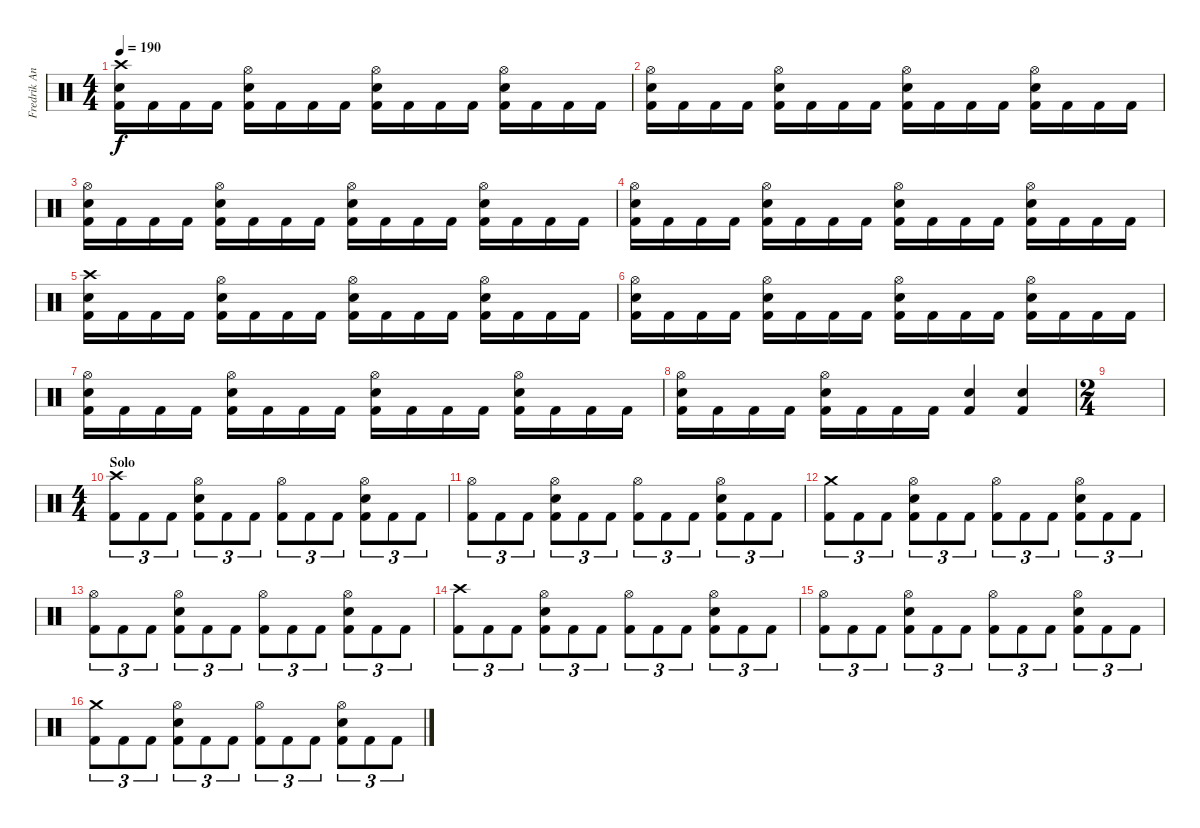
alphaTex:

\track ("Fredrik Andersson" "Fredrik An") {instrument percussion}
\staff {score}
\articulation defaults
\ts (4 4)
\section ("" "")
\tempo 190
\clef neutral
\ks c
("Crash high (hit)" "Electric Snare (hit)" "Kick (hit) 2").16{dy f} "Kick (hit) 2".16 "Kick (hit) 2".16 "Kick (hit) 2".16 ("Hi-Hat (open)" "Electric Snare (hit)" "Kick (hit) 2").16 "Kick (hit) 2".16 "Kick (hit) 2".16 "Kick (hit) 2".16 ("Hi-Hat (open)" "Electric Snare (hit)" "Kick (hit) 2").16 "Kick (hit) 2".16 "Kick (hit) 2".16 "Kick (hit) 2".16 ("Hi-Hat (open)" "Electric Snare (hit)" "Kick (hit) 2").16 "Kick (hit) 2".16 "Kick (hit) 2".16 "Kick (hit) 2".16 |
("Hi-Hat (open)" "Electric Snare (hit)" "Kick (hit) 2").16 "Kick (hit) 2".16 "Kick (hit) 2".16 "Kick (hit) 2".16 ("Hi-Hat (open)" "Electric Snare (hit)" "Kick (hit) 2").16 "Kick (hit) 2".16 "Kick (hit) 2".16 "Kick (hit) 2".16 ("Hi-Hat (open)" "Electric Snare (hit)" "Kick (hit) 2").16 "Kick (hit) 2".16 "Kick (hit) 2".16 "Kick (hit) 2".16 ("Hi-Hat (open)" "Electric Snare (hit)" "Kick (hit) 2").16 "Kick (hit) 2".16 "Kick (hit) 2".16 "Kick (hit) 2".16 |
("Hi-Hat (open)" "Electric Snare (hit)" "Kick (hit) 2").16 "Kick (hit) 2".16 "Kick (hit) 2".16 "Kick (hit) 2".16 ("Hi-Hat (open)" "Electric Snare (hit)" "Kick (hit) 2").16 "Kick (hit) 2".16 "Kick (hit) 2".16 "Kick (hit) 2".16 ("Hi-Hat (open)" "Electric Snare (hit)" "Kick (hit) 2").16 "Kick (hit) 2".16 "Kick (hit) 2".16 "Kick (hit) 2".16 ("Hi-Hat (open)" "Electric Snare (hit)" "Kick (hit) 2").16 "Kick (hit) 2".16 "Kick (hit) 2".16 "Kick (hit) 2".16 |
("Hi-Hat (open)" "Electric Snare (hit)" "Kick (hit) 2").16 "Kick (hit) 2".16 "Kick (hit) 2".16 "Kick (hit) 2".16 ("Hi-Hat (open)" "Electric Snare (hit)" "Kick (hit) 2").16 "Kick (hit) 2".16 "Kick (hit) 2".16 "Kick (hit) 2".16 ("Hi-Hat (open)" "Electric Snare (hit)" "Kick (hit) 2").16 "Kick (hit) 2".16 "Kick (hit) 2".16 "Kick (hit) 2".16 ("Hi-Hat (open)" "Electric Snare (hit)" "Kick (hit) 2").16 "Kick (hit) 2".16 "Kick (hit) 2".16 "Kick (hit) 2".16 |
("Crash high (hit)" "Electric Snare (hit)" "Kick (hit) 2").16 "Kick (hit) 2".16 "Kick (hit) 2".16 "Kick (hit) 2".16 ("Hi-Hat (open)" "Electric Snare (hit)" "Kick (hit) 2").16 "Kick (hit) 2".16 "Kick (hit) 2".16 "Kick (hit) 2".16 ("Hi-Hat (open)" "Electric Snare (hit)" "Kick (hit) 2").16 "Kick (hit) 2".16 "Kick (hit) 2".16 "Kick (hit) 2".16 ("Hi-Hat (open)" "Electric Snare (hit)" "Kick (hit) 2").16 "Kick (hit) 2".16 "Kick (hit) 2".16 "Kick (hit) 2".16 |
("Hi-Hat (open)" "Electric Snare (hit)" "Kick (hit) 2").16 "Kick (hit) 2".16 "Kick (hit) 2".16 "Kick (hit) 2".16 ("Hi-Hat (open)" "Electric Snare (hit)" "Kick (hit) 2").16 "Kick (hit) 2".16 "Kick (hit) 2".16 "Kick (hit) 2".16 ("Hi-Hat (open)" "Electric Snare (hit)" "Kick (hit) 2").16 "Kick (hit) 2".16 "Kick (hit) 2".16 "Kick (hit) 2".16 ("Hi-Hat (open)" "Electric Snare (hit)" "Kick (hit) 2").16 "Kick (hit) 2".16 "Kick (hit) 2".16 "Kick (hit) 2".16 |
("Hi-Hat (open)" "Electric Snare (hit)" "Kick (hit) 2").16 "Kick (hit) 2".16 "Kick (hit) 2".16 "Kick (hit) 2".16 ("Hi-Hat (open)" "Electric Snare (hit)" "Kick (hit) 2").16 "Kick (hit) 2".16 "Kick (hit) 2".16 "Kick (hit) 2".16 ("Hi-Hat (open)" "Electric Snare (hit)" "Kick (hit) 2").16 "Kick (hit) 2".16 "Kick (hit) 2".16 "Kick (hit) 2".16 ("Hi-Hat (open)" "Electric Snare (hit)" "Kick (hit) 2").16 "Kick (hit) 2".16 "Kick (hit) 2".16 "Kick (hit) 2".16 |
("Hi-Hat (open)" "Electric Snare (hit)" "Kick (hit) 2").16 "Kick (hit) 2".16 "Kick (hit) 2".16 "Kick (hit) 2".16 ("Hi-Hat (open)" "Electric Snare (hit)" "Kick (hit) 2").16 "Kick (hit) 2".16 "Kick (hit) 2".16 "Kick (hit) 2".16 ("Electric Snare (hit)" "Kick (hit) 2").4 ("Electric Snare (hit)" "Kick (hit) 2").4 |
\ts (2 4)
|
\ts (4 4)
\section ("" "Solo")
("Crash high (hit)" "Kick (hit) 2").8{tu (3 2)} "Kick (hit) 2".8{tu (3 2)} "Kick (hit) 2".8{tu (3 2)} ("Hi-Hat (open)" "Electric Snare (hit)" "Kick (hit) 2").8{tu (3 2)} "Kick (hit) 2".8{tu (3 2)} "Kick (hit) 2".8{tu (3 2)} ("Hi-Hat (open)" "Kick (hit) 2").8{tu (3 2)} "Kick (hit) 2".8{tu (3 2)} "Kick (hit) 2".8{tu (3 2)} ("Hi-Hat (open)" "Electric Snare (hit)" "Kick (hit) 2").8{tu (3 2)} "Kick (hit) 2".8{tu (3 2)} "Kick (hit) 2".8{tu (3 2)} |
("Hi-Hat (open)" "Kick (hit) 2").8{tu (3 2)} "Kick (hit) 2".8{tu (3 2)} "Kick (hit) 2".8{tu (3 2)} ("Hi-Hat (open)" "Electric Snare (hit)" "Kick (hit) 2").8{tu (3 2)} "Kick (hit) 2".8{tu (3 2)} "Kick (hit) 2".8{tu (3 2)} ("Hi-Hat (open)" "Kick (hit) 2").8{tu (3 2)} "Kick (hit) 2".8{tu (3 2)} "Kick (hit) 2".8{tu (3 2)} ("Hi-Hat (open)" "Electric Snare (hit)" "Kick (hit) 2").8{tu (3 2)} "Kick (hit) 2".8{tu (3 2)} "Kick (hit) 2".8{tu (3 2)} |
("Crash medium (hit)" "Kick (hit) 2").8{tu (3 2)} "Kick (hit) 2".8{tu (3 2)} "Kick (hit) 2".8{tu (3 2)} ("Hi-Hat (open)" "Electric Snare (hit)" "Kick (hit) 2").8{tu (3 2)} "Kick (hit) 2".8{tu (3 2)} "Kick (hit) 2".8{tu (3 2)} ("Hi-Hat (open)" "Kick (hit) 2").8{tu (3 2)} "Kick (hit) 2".8{tu (3 2)} "Kick (hit) 2".8{tu (3 2)} ("Hi-Hat (open)" "Electric Snare (hit)" "Kick (hit) 2").8{tu (3 2)} "Kick (hit) 2".8{tu (3 2)} "Kick (hit) 2".8{tu (3 2)} |
("Hi-Hat (open)" "Kick (hit) 2").8{tu (3 2)} "Kick (hit) 2".8{tu (3 2)} "Kick (hit) 2".8{tu (3 2)} ("Hi-Hat (open)" "Electric Snare (hit)" "Kick (hit) 2").8{tu (3 2)} "Kick (hit) 2".8{tu (3 2)} "Kick (hit) 2".8{tu (3 2)} ("Hi-Hat (open)" "Kick (hit) 2").8{tu (3 2)} "Kick (hit) 2".8{tu (3 2)} "Kick (hit) 2".8{tu (3 2)} ("Hi-Hat (open)" "Electric Snare (hit)" "Kick (hit) 2").8{tu (3 2)} "Kick (hit) 2".8{tu (3 2)} "Kick (hit) 2".8{tu (3 2)} |
("Crash high (hit)" "Kick (hit) 2").8{tu (3 2)} "Kick (hit) 2".8{tu (3 2)} "Kick (hit) 2".8{tu (3 2)} ("Hi-Hat (open)" "Electric Snare (hit)" "Kick (hit) 2").8{tu (3 2)} "Kick (hit) 2".8{tu (3 2)} "Kick (hit) 2".8{tu (3 2)} ("Hi-Hat (open)" "Kick (hit) 2").8{tu (3 2)} "Kick (hit) 2".8{tu (3 2)} "Kick (hit) 2".8{tu (3 2)} ("Hi-Hat (open)" "Electric Snare (hit)" "Kick (hit) 2").8{tu (3 2)} "Kick (hit) 2".8{tu (3 2)} "Kick (hit) 2".8{tu (3 2)} |
("Hi-Hat (open)" "Kick (hit) 2").8{tu (3 2)} "Kick (hit) 2".8{tu (3 2)} "Kick (hit) 2".8{tu (3 2)} ("Hi-Hat (open)" "Electric Snare (hit)" "Kick (hit) 2").8{tu (3 2)} "Kick (hit) 2".8{tu (3 2)} "Kick (hit) 2".8{tu (3 2)} ("Hi-Hat (open)" "Kick (hit) 2").8{tu (3 2)} "Kick (hit) 2".8{tu (3 2)} "Kick (hit) 2".8{tu (3 2)} ("Hi-Hat (open)" "Electric Snare (hit)" "Kick (hit) 2").8{tu (3 2)} "Kick (hit) 2".8{tu (3 2)} "Kick (hit) 2".8{tu (3 2)} |
("Crash medium (hit)" "Kick (hit) 2").8{tu (3 2)} "Kick (hit) 2".8{tu (3 2)} "Kick (hit) 2".8{tu (3 2)} ("Hi-Hat (open)" "Electric Snare (hit)" "Kick (hit) 2").8{tu (3 2)} "Kick (hit) 2".8{tu (3 2)} "Kick (hit) 2".8{tu (3 2)} ("Hi-Hat (open)" "Kick (hit) 2").8{tu (3 2)} "Kick (hit) 2".8{tu (3 2)} "Kick (hit) 2".8{tu (3 2)} ("Hi-Hat (open)" "Electric Snare (hit)" "Kick (hit) 2").8{tu (3 2)} "Kick (hit) 2".8{tu (3 2)} "Kick (hit) 2".8{tu (3 2)}
